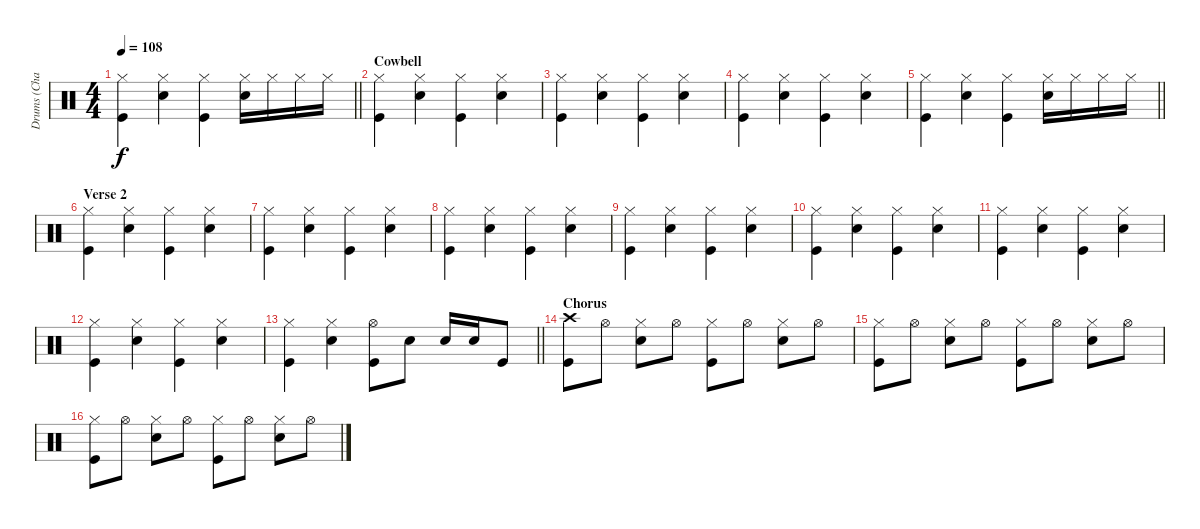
\track ("Drums (Chad Smith)" "Drums (Cha") {instrument percussion}
\staff {score}
\articulation defaults
\ts (4 4)
\tempo 108
\clef neutral
\barLineRight lightlight
\ks c
("Hi-Hat (closed)" "Kick (hit)").4{dy f} ("Hi-Hat (closed)" "Snare (hit) 2").4 ("Hi-Hat (closed)" "Kick (hit)").4 ("Hi-Hat (closed)" "Snare (hit) 2").16 "Hi-Hat (closed)".16 "Hi-Hat (closed)".16 "Hi-Hat (closed)".16 |
\section ("" "Cowbell")
("Hi-Hat (closed)" "Kick (hit)").4 ("Hi-Hat (closed)" "Snare (hit) 2").4 ("Hi-Hat (closed)" "Kick (hit)").4 ("Hi-Hat (closed)" "Snare (hit) 2").4 |
("Hi-Hat (closed)" "Kick (hit)").4 ("Hi-Hat (closed)" "Snare (hit) 2").4 ("Hi-Hat (closed)" "Kick (hit)").4 ("Hi-Hat (closed)" "Snare (hit) 2").4 |
("Hi-Hat (closed)" "Kick (hit)").4 ("Hi-Hat (closed)" "Snare (hit) 2").4 ("Hi-Hat (closed)" "Kick (hit)").4 ("Hi-Hat (closed)" "Snare (hit) 2").4 |
\barLineRight lightlight
("Hi-Hat (closed)" "Kick (hit)").4 ("Hi-Hat (closed)" "Snare (hit) 2").4 ("Hi-Hat (closed)" "Kick (hit)").4 ("Hi-Hat (closed)" "Snare (hit) 2").16 "Hi-Hat (closed)".16 "Hi-Hat (closed)".16 "Hi-Hat (closed)".16 |
\section ("" "Verse 2")
("Hi-Hat (closed)" "Kick (hit)").4 ("Hi-Hat (closed)" "Snare (hit) 2").4 ("Hi-Hat (closed)" "Kick (hit)").4 ("Hi-Hat (closed)" "Snare (hit) 2").4 |
("Hi-Hat (closed)" "Kick (hit)").4 ("Hi-Hat (closed)" "Snare (hit) 2").4 ("Hi-Hat (closed)" "Kick (hit)").4 ("Hi-Hat (closed)" "Snare (hit) 2").4 |
("Hi-Hat (closed)" "Kick (hit)").4 ("Hi-Hat (closed)" "Snare (hit) 2").4 ("Hi-Hat (closed)" "Kick (hit)").4 ("Hi-Hat (closed)" "Snare (hit) 2").4 |
("Hi-Hat (closed)" "Kick (hit)").4 ("Hi-Hat (closed)" "Snare (hit) 2").4 ("Hi-Hat (closed)" "Kick (hit)").4 ("Hi-Hat (closed)" "Snare (hit) 2").4 |
("Hi-Hat (closed)" "Kick (hit)").4 ("Hi-Hat (closed)" "Snare (hit) 2").4 ("Hi-Hat (closed)" "Kick (hit)").4 ("Hi-Hat (closed)" "Snare (hit) 2").4 |
("Hi-Hat (closed)" "Kick (hit)").4 ("Hi-Hat (closed)" "Snare (hit) 2").4 ("Hi-Hat (closed)" "Kick (hit)").4 ("Hi-Hat (closed)" "Snare (hit) 2").4 |
("Hi-Hat (closed)" "Kick (hit)").4 ("Hi-Hat (closed)" "Snare (hit) 2").4 ("Hi-Hat (closed)" "Kick (hit)").4 ("Hi-Hat (closed)" "Snare (hit) 2").4 |
\barLineRight lightlight
("Hi-Hat (closed)" "Kick (hit)").4 ("Hi-Hat (closed)" "Snare (hit) 2").4 ("Hi-Hat (open)" "Kick (hit)").8 "Snare (hit) 2".8 "Snare (hit) 2".16 "Snare (hit) 2".16 "Kick (hit)".8 |
\section ("" "Chorus")
("Crash high (hit)" "Kick (hit)").8 "Hi-Hat (open)".8 ("Hi-Hat (closed)" "Snare (hit) 2").8 "Hi-Hat (open)".8 ("Hi-Hat (closed)" "Kick (hit)").8 "Hi-Hat (open)".8 ("Hi-Hat (closed)" "Snare (hit) 2").8 "Hi-Hat (open)".8 |
("Hi-Hat (closed)" "Kick (hit)").8 "Hi-Hat (open)".8 ("Hi-Hat (closed)" "Snare (hit) 2").8 "Hi-Hat (open)".8 ("Hi-Hat (closed)" "Kick (hit)").8 "Hi-Hat (open)".8 ("Hi-Hat (closed)" "Snare (hit) 2").8 "Hi-Hat (open)".8 |
("Hi-Hat (closed)" "Kick (hit)").8 "Hi-Hat (open)".8 ("Hi-Hat (closed)" "Snare (hit) 2").8 "Hi-Hat (open)".8 ("Hi-Hat (closed)" "Kick (hit)").8 "Hi-Hat (open)".8 ("Hi-Hat (closed)" "Snare (hit) 2").8 "Hi-Hat (open)".8
